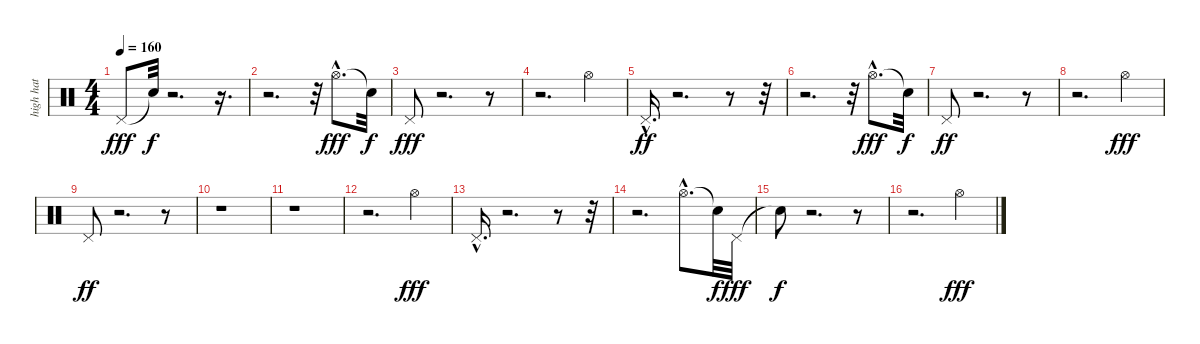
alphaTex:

\track ("high hat" "high hat") {instrument percussion}
\staff {score}
\articulation defaults
\ts (4 4)
\tempo 160
\clef neutral
\ks c "Pedal Hi-Hat (hit)".8{dy fff} "Snare (hit)"{t}.32{dy f}
r.2{d} r.16{d} |
r.2{d} r.32 "Hi-Hat (open)"{hac}.8{d dy fff} "Snare (hit)"{t}.32{dy f} |
"Pedal Hi-Hat (hit)".8{dy fff} r.2{d} r.8 |
r.2{d} "Hi-Hat (open)".4 |
"Pedal Hi-Hat (hit)"{hac}.16{d dy ff} r.2{d} r.8 r.32 |
r.2{d} r.32 "Hi-Hat (open)"{hac}.8{d dy fff} "Snare (hit)"{t}.32{dy f} |
"Pedal Hi-Hat (hit)".8{dy ff} r.2{d} r.8 |
r.2{d} "Hi-Hat (open)".4{dy fff} |
"Pedal Hi-Hat (hit)".8{dy ff} r.2{d} r.8 |
r.1 |
r.1 |
r.2{d} "Hi-Hat (open)".4{dy fff} |
"Pedal Hi-Hat (hit)"{hac}.16{d} r.2{d} r.8 r.32 |
r.2{d} "Hi-Hat (open)"{hac}.8{d} "Snare (hit)"{t}.32{dy f} "Pedal Hi-Hat (hit)".32{dy fff} |
"Snare (hit)"{t}.8{dy f} r.2{d} r.8 |
r.2{d} "Hi-Hat (open)".4{dy fff}
